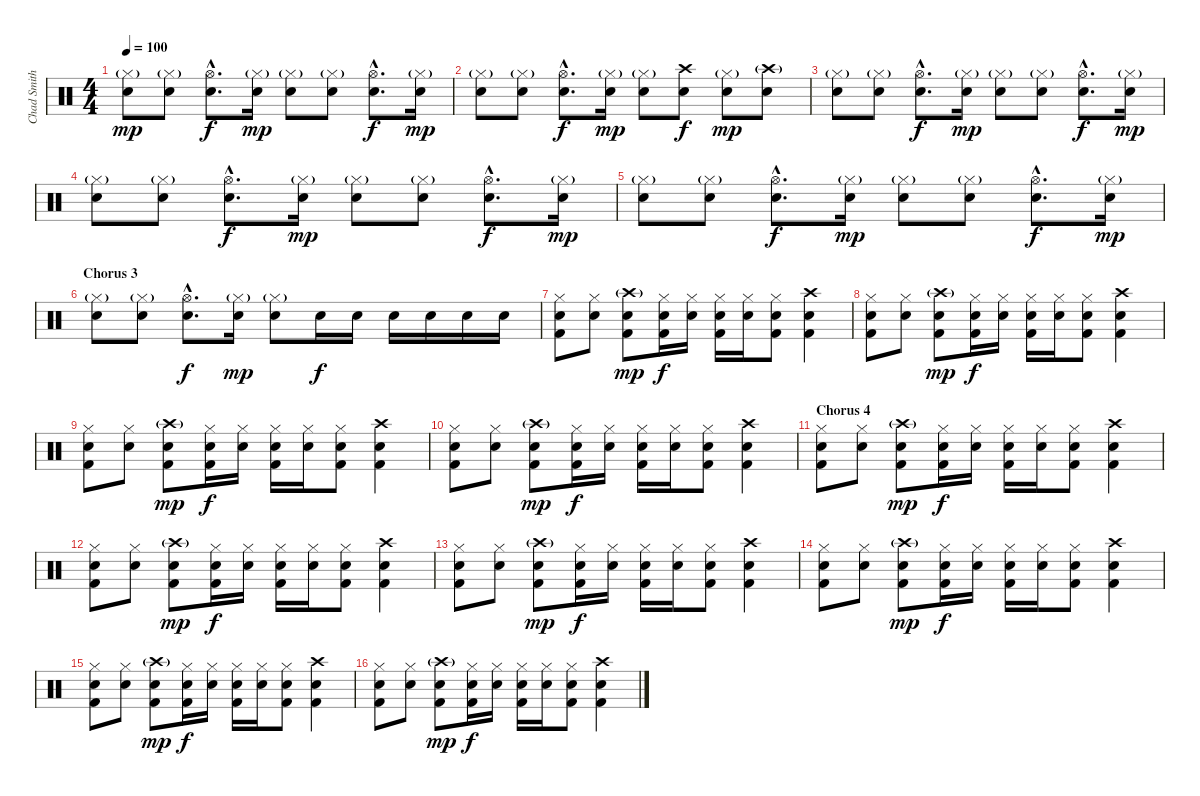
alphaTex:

\track ("Chad Smith - Drums" "Chad Smith") {instrument percussion}
\staff {score}
\articulation defaults
\ts (4 4)
\tempo 100
\clef neutral
\ks c
("Hi-Hat (closed)"{g} "Snare (hit) 2").8{dy mp} ("Hi-Hat (closed)"{g} "Snare (hit) 2").8 ("Hi-Hat (open)"{hac} "Snare (hit) 2"{hac}).8{d dy f} ("Hi-Hat (closed)"{g} "Snare (hit) 2").16{dy mp} ("Hi-Hat (closed)"{g} "Snare (hit) 2").8 ("Hi-Hat (closed)"{g} "Snare (hit) 2").8 ("Hi-Hat (open)"{hac} "Snare (hit) 2"{hac}).8{d dy f} ("Hi-Hat (closed)"{g} "Snare (hit) 2").16{dy mp} |
("Hi-Hat (closed)"{g} "Snare (hit) 2").8 ("Hi-Hat (closed)"{g} "Snare (hit) 2").8 ("Hi-Hat (open)"{hac} "Snare (hit) 2"{hac}).8{d dy f} ("Hi-Hat (closed)"{g} "Snare (hit) 2").16{dy mp} ("Hi-Hat (closed)"{g} "Snare (hit) 2").8 ("Crash high (hit)" "Snare (hit) 2").8{dy f} ("Hi-Hat (closed)"{g} "Snare (hit) 2").8{dy mp} ("Crash high (hit)"{g} "Snare (hit) 2").8 |
("Hi-Hat (closed)"{g} "Snare (hit) 2").8 ("Hi-Hat (closed)"{g} "Snare (hit) 2").8 ("Hi-Hat (open)"{hac} "Snare (hit) 2"{hac}).8{d dy f} ("Hi-Hat (closed)"{g} "Snare (hit) 2").16{dy mp} ("Hi-Hat (closed)"{g} "Snare (hit) 2").8 ("Hi-Hat (closed)"{g} "Snare (hit) 2").8 ("Hi-Hat (open)"{hac} "Snare (hit) 2"{hac}).8{d dy f} ("Hi-Hat (closed)"{g} "Snare (hit) 2").16{dy mp} |
("Hi-Hat (closed)"{g} "Snare (hit) 2").8 ("Hi-Hat (closed)"{g} "Snare (hit) 2").8 ("Hi-Hat (open)"{hac} "Snare (hit) 2"{hac}).8{d dy f} ("Hi-Hat (closed)"{g} "Snare (hit) 2").16{dy mp} ("Hi-Hat (closed)"{g} "Snare (hit) 2").8 ("Hi-Hat (closed)"{g} "Snare (hit) 2").8 ("Hi-Hat (open)"{hac} "Snare (hit) 2"{hac}).8{d dy f} ("Hi-Hat (closed)"{g} "Snare (hit) 2").16{dy mp} |
("Hi-Hat (closed)"{g} "Snare (hit) 2").8 ("Hi-Hat (closed)"{g} "Snare (hit) 2").8 ("Hi-Hat (open)"{hac} "Snare (hit) 2"{hac}).8{d dy f} ("Hi-Hat (closed)"{g} "Snare (hit) 2").16{dy mp} ("Hi-Hat (closed)"{g} "Snare (hit) 2").8 ("Hi-Hat (closed)"{g} "Snare (hit) 2").8 ("Hi-Hat (open)"{hac} "Snare (hit) 2"{hac}).8{d dy f} ("Hi-Hat (closed)"{g} "Snare (hit) 2").16{dy mp} |
\section ("" "Chorus 3")
("Hi-Hat (closed)"{g} "Snare (hit) 2").8 ("Hi-Hat (closed)"{g} "Snare (hit) 2").8 ("Hi-Hat (open)"{hac} "Snare (hit) 2"{hac}).8{d dy f} ("Hi-Hat (closed)"{g} "Snare (hit) 2").16{dy mp} ("Hi-Hat (closed)"{g} "Snare (hit) 2").8 "Electric Snare (hit)".16{dy f} "Electric Snare (hit)".16 "Electric Snare (hit)".16 "Electric Snare (hit)".16 "Electric Snare (hit)".16 "Electric Snare (hit)".16 |
("Hi-Hat (closed)" "Electric Snare (hit)" "Kick (hit) 2").8 ("Hi-Hat (closed)" "Electric Snare (hit)").8 ("Crash high (hit)"{g} "Electric Snare (hit)" "Kick (hit) 2").8{dy mp} ("Hi-Hat (closed)" "Electric Snare (hit)" "Kick (hit) 2").16{dy f} ("Hi-Hat (closed)" "Electric Snare (hit)").16 ("Hi-Hat (closed)" "Electric Snare (hit)" "Kick (hit) 2").16 ("Hi-Hat (closed)" "Electric Snare (hit)").16 ("Hi-Hat (closed)" "Electric Snare (hit)" "Kick (hit) 2").8 ("Crash high (hit)" "Electric Snare (hit)" "Kick (hit) 2").4 |
("Hi-Hat (closed)" "Electric Snare (hit)" "Kick (hit) 2").8 ("Hi-Hat (closed)" "Electric Snare (hit)").8 ("Crash high (hit)"{g} "Electric Snare (hit)" "Kick (hit) 2").8{dy mp} ("Hi-Hat (closed)" "Electric Snare (hit)" "Kick (hit) 2").16{dy f} ("Hi-Hat (closed)" "Electric Snare (hit)").16 ("Hi-Hat (closed)" "Electric Snare (hit)" "Kick (hit) 2").16 ("Hi-Hat (closed)" "Electric Snare (hit)").16 ("Hi-Hat (closed)" "Electric Snare (hit)" "Kick (hit) 2").8 ("Crash high (hit)" "Electric Snare (hit)" "Kick (hit) 2").4 |
("Hi-Hat (closed)" "Electric Snare (hit)" "Kick (hit) 2").8 ("Hi-Hat (closed)" "Electric Snare (hit)").8 ("Crash high (hit)"{g} "Electric Snare (hit)" "Kick (hit) 2").8{dy mp} ("Hi-Hat (closed)" "Electric Snare (hit)" "Kick (hit) 2").16{dy f} ("Hi-Hat (closed)" "Electric Snare (hit)").16 ("Hi-Hat (closed)" "Electric Snare (hit)" "Kick (hit) 2").16 ("Hi-Hat (closed)" "Electric Snare (hit)").16 ("Hi-Hat (closed)" "Electric Snare (hit)" "Kick (hit) 2").8 ("Crash high (hit)" "Electric Snare (hit)" "Kick (hit) 2").4 |
("Hi-Hat (closed)" "Electric Snare (hit)" "Kick (hit) 2").8 ("Hi-Hat (closed)" "Electric Snare (hit)").8 ("Crash high (hit)"{g} "Electric Snare (hit)" "Kick (hit) 2").8{dy mp} ("Hi-Hat (closed)" "Electric Snare (hit)" "Kick (hit) 2").16{dy f} ("Hi-Hat (closed)" "Electric Snare (hit)").16 ("Hi-Hat (closed)" "Electric Snare (hit)" "Kick (hit) 2").16 ("Hi-Hat (closed)" "Electric Snare (hit)").16 ("Hi-Hat (closed)" "Electric Snare (hit)" "Kick (hit) 2").8 ("Crash high (hit)" "Electric Snare (hit)" "Kick (hit) 2").4 |
\section ("" "Chorus 4")
("Hi-Hat (closed)" "Electric Snare (hit)" "Kick (hit) 2").8 ("Hi-Hat (closed)" "Electric Snare (hit)").8 ("Crash high (hit)"{g} "Electric Snare (hit)" "Kick (hit) 2").8{dy mp} ("Hi-Hat (closed)" "Electric Snare (hit)" "Kick (hit) 2").16{dy f} ("Hi-Hat (closed)" "Electric Snare (hit)").16 ("Hi-Hat (closed)" "Electric Snare (hit)" "Kick (hit) 2").16 ("Hi-Hat (closed)" "Electric Snare (hit)").16 ("Hi-Hat (closed)" "Electric Snare (hit)" "Kick (hit) 2").8 ("Crash high (hit)" "Electric Snare (hit)" "Kick (hit) 2").4 |
("Hi-Hat (closed)" "Electric Snare (hit)" "Kick (hit) 2").8 ("Hi-Hat (closed)" "Electric Snare (hit)").8 ("Crash high (hit)"{g} "Electric Snare (hit)" "Kick (hit) 2").8{dy mp} ("Hi-Hat (closed)" "Electric Snare (hit)" "Kick (hit) 2").16{dy f} ("Hi-Hat (closed)" "Electric Snare (hit)").16 ("Hi-Hat (closed)" "Electric Snare (hit)" "Kick (hit) 2").16 ("Hi-Hat (closed)" "Electric Snare (hit)").16 ("Hi-Hat (closed)" "Electric Snare (hit)" "Kick (hit) 2").8 ("Crash high (hit)" "Electric Snare (hit)" "Kick (hit) 2").4 |
("Hi-Hat (closed)" "Electric Snare (hit)" "Kick (hit) 2").8 ("Hi-Hat (closed)" "Electric Snare (hit)").8 ("Crash high (hit)"{g} "Electric Snare (hit)" "Kick (hit) 2").8{dy mp} ("Hi-Hat (closed)" "Electric Snare (hit)" "Kick (hit) 2").16{dy f} ("Hi-Hat (closed)" "Electric Snare (hit)").16 ("Hi-Hat (closed)" "Electric Snare (hit)" "Kick (hit) 2").16 ("Hi-Hat (closed)" "Electric Snare (hit)").16 ("Hi-Hat (closed)" "Electric Snare (hit)" "Kick (hit) 2").8 ("Crash high (hit)" "Electric Snare (hit)" "Kick (hit) 2").4 |
("Hi-Hat (closed)" "Electric Snare (hit)" "Kick (hit) 2").8 ("Hi-Hat (closed)" "Electric Snare (hit)").8 ("Crash high (hit)"{g} "Electric Snare (hit)" "Kick (hit) 2").8{dy mp} ("Hi-Hat (closed)" "Electric Snare (hit)" "Kick (hit) 2").16{dy f} ("Hi-Hat (closed)" "Electric Snare (hit)").16 ("Hi-Hat (closed)" "Electric Snare (hit)" "Kick (hit) 2").16 ("Hi-Hat (closed)" "Electric Snare (hit)").16 ("Hi-Hat (closed)" "Electric Snare (hit)" "Kick (hit) 2").8 ("Crash high (hit)" "Electric Snare (hit)" "Kick (hit) 2").4 |
("Hi-Hat (closed)" "Electric Snare (hit)" "Kick (hit) 2").8 ("Hi-Hat (closed)" "Electric Snare (hit)").8 ("Crash high (hit)"{g} "Electric Snare (hit)" "Kick (hit) 2").8{dy mp} ("Hi-Hat (closed)" "Electric Snare (hit)" "Kick (hit) 2").16{dy f} ("Hi-Hat (closed)" "Electric Snare (hit)").16 ("Hi-Hat (closed)" "Electric Snare (hit)" "Kick (hit) 2").16 ("Hi-Hat (closed)" "Electric Snare (hit)").16 ("Hi-Hat (closed)" "Electric Snare (hit)" "Kick (hit) 2").8 ("Crash high (hit)" "Electric Snare (hit)" "Kick (hit) 2").4 |
("Hi-Hat (closed)" "Electric Snare (hit)" "Kick (hit) 2").8 ("Hi-Hat (closed)" "Electric Snare (hit)").8 ("Crash high (hit)"{g} "Electric Snare (hit)" "Kick (hit) 2").8{dy mp} ("Hi-Hat (closed)" "Electric Snare (hit)" "Kick (hit) 2").16{dy f} ("Hi-Hat (closed)" "Electric Snare (hit)").16 ("Hi-Hat (closed)" "Electric Snare (hit)" "Kick (hit) 2").16 ("Hi-Hat (closed)" "Electric Snare (hit)").16 ("Hi-Hat (closed)" "Electric Snare (hit)" "Kick (hit) 2").8 ("Crash high (hit)" "Electric Snare (hit)" "Kick (hit) 2").4
